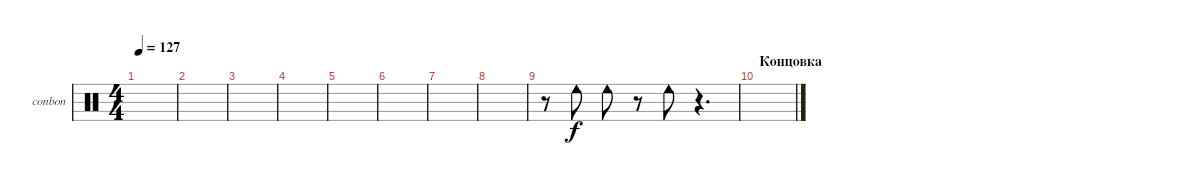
\defaultSystemsLayout 4
\bracketExtendMode groupsimilarinstruments
\firstSystemTrackNameOrientation horizontal
\otherSystemsTrackNameOrientation horizontal
\track ("подстук" "conbon") {instrument percussion}
\staff {score}
\articulation defaults
\ts (4 4)
\tempo 127
\clef neutral
\scale
0.333333
\ks c
|
\scale
0.333333 |
\scale
0.333333 |
\scale
0.333333 |
\scale
0.333333 |
\scale
0.333333 |
\scale
0.333333 |
\scale
0.333333 |
\scale
0.333333 r.8 "Cowbell low (hit)".8 "Cowbell low (hit)".8 r.8 "Cowbell low (hit)".8 r.4{d} |
\section ("" "Концовка")
\scale
0.333333 |
\scale
0.333333 |
\scale
0.333333 |
\scale
0.333333 |
\scale
0.333333 |
\scale
0.333333 |
\scale
0.333333
